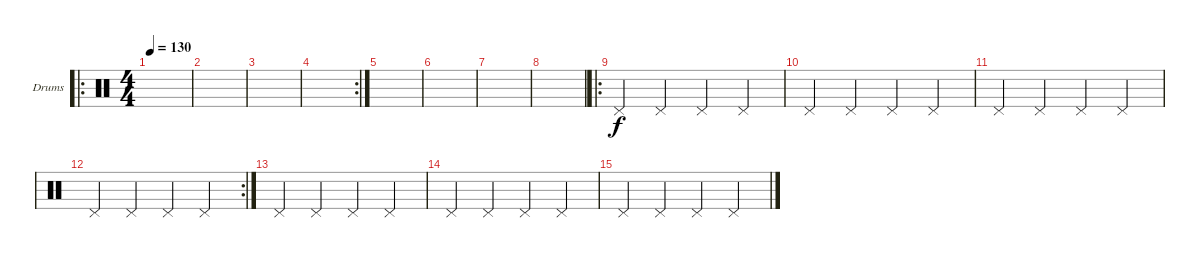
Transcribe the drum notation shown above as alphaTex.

\defaultSystemsLayout 4
\bracketExtendMode groupsimilarinstruments
\firstSystemTrackNameOrientation horizontal
\otherSystemsTrackNameOrientation horizontal
\track ("Барабаны2" "Drums") {instrument percussion}
\staff {score}
\articulation defaults
\ro
\ts (4 4)
\tempo 130
\clef neutral
\scale
0.377049
\ks c
|
\scale
0.311475 |
\scale
0.311475 |
\rc 2
\scale
0.355932 |
\scale
0.322034 |
\scale
0.322034 |
\scale
0.333333 |
\scale
0.333333 |
\ro
\scale
0.333333 "Pedal Hi-Hat (hit)".4 "Pedal Hi-Hat (hit)".4 "Pedal Hi-Hat (hit)".4 "Pedal Hi-Hat (hit)".4 |
\scale
0.333333 "Pedal Hi-Hat (hit)".4 "Pedal Hi-Hat (hit)".4 "Pedal Hi-Hat (hit)".4 "Pedal Hi-Hat (hit)".4 |
\scale
0.333333 "Pedal Hi-Hat (hit)".4 "Pedal Hi-Hat (hit)".4 "Pedal Hi-Hat (hit)".4 "Pedal Hi-Hat (hit)".4 |
\rc 2
\scale
0.333333 "Pedal Hi-Hat (hit)".4 "Pedal Hi-Hat (hit)".4 "Pedal Hi-Hat (hit)".4 "Pedal Hi-Hat (hit)".4 |
\scale
0.333333 "Pedal Hi-Hat (hit)".4 "Pedal Hi-Hat (hit)".4 "Pedal Hi-Hat (hit)".4 "Pedal Hi-Hat (hit)".4 |
\scale
0.333333 "Pedal Hi-Hat (hit)".4 "Pedal Hi-Hat (hit)".4 "Pedal Hi-Hat (hit)".4 "Pedal Hi-Hat (hit)".4 |
\scale
0.333333 "Pedal Hi-Hat (hit)".4 "Pedal Hi-Hat (hit)".4 "Pedal Hi-Hat (hit)".4 "Pedal Hi-Hat (hit)".4 |
\scale
0.311475
